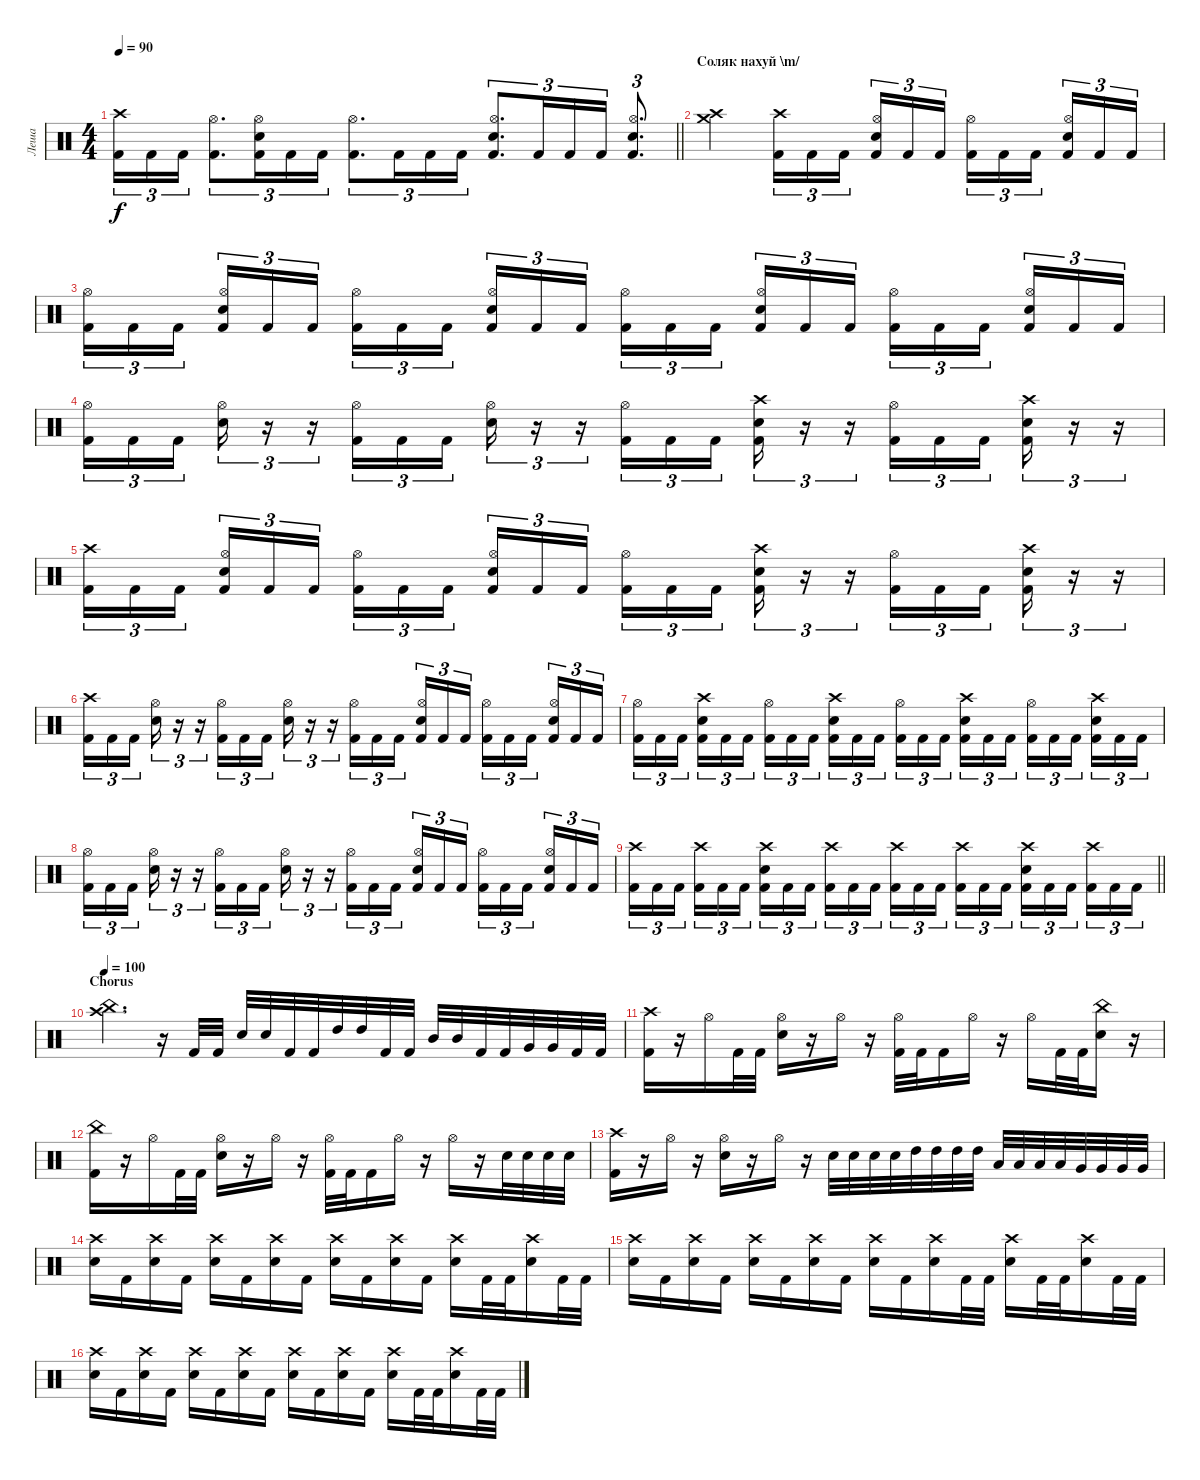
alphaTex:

\track ("Леша" "Леша") {instrument percussion}
\staff {score}
\articulation defaults
\ts (4 4)
\tempo 90
\clef neutral
\barLineRight lightlight
\ks c
("Crash high (hit)" "Kick (hit) 2").16{tu (3 2) dy f} "Kick (hit) 2".16{tu (3 2)} "Kick (hit) 2".16{tu (3 2)} ("Hi-Hat (open)" "Kick (hit) 2").8{d tu (3 2)} ("Hi-Hat (open)" "Electric Snare (hit)" "Kick (hit) 2").16{tu (3 2)} "Kick (hit) 2".16{tu (3 2)} "Kick (hit) 2".16{tu (3 2)} ("Hi-Hat (open)" "Kick (hit) 2").8{d tu (3 2)} "Kick (hit) 2".16{tu (3 2)} "Kick (hit) 2".16{tu (3 2)} "Kick (hit) 2".16{tu (3 2)} ("Hi-Hat (open)" "Electric Snare (hit)" "Kick (hit) 2").8{d tu (3 2)} "Kick (hit) 2".16{tu (3 2)} "Kick (hit) 2".16{tu (3 2)} "Kick (hit) 2".16{tu (3 2)} ("Hi-Hat (open)" "Electric Snare (hit)" "Kick (hit) 2").8{d tu (3 2)} |
\section ("" "Соляк нахуй \\m/")
("Crash high (hit)" "Crash medium (hit)").2 ("Crash high (hit)" "Kick (hit) 2").16{tu (3 2)} "Kick (hit) 2".16{tu (3 2)} "Kick (hit) 2".16{tu (3 2) beam splitsecondary} ("Hi-Hat (open)" "Electric Snare (hit)" "Kick (hit) 2").16{tu (3 2)} "Kick (hit) 2".16{tu (3 2)} "Kick (hit) 2".16{tu (3 2)} ("Hi-Hat (open)" "Kick (hit) 2").16{tu (3 2)} "Kick (hit) 2".16{tu (3 2)} "Kick (hit) 2".16{tu (3 2) beam splitsecondary} ("Hi-Hat (open)" "Electric Snare (hit)" "Kick (hit) 2").16{tu (3 2)} "Kick (hit) 2".16{tu (3 2)} "Kick (hit) 2".16{tu (3 2)} |
("Hi-Hat (open)" "Kick (hit) 2").16{tu (3 2)} "Kick (hit) 2".16{tu (3 2)} "Kick (hit) 2".16{tu (3 2) beam splitsecondary} ("Hi-Hat (open)" "Electric Snare (hit)" "Kick (hit) 2").16{tu (3 2)} "Kick (hit) 2".16{tu (3 2)} "Kick (hit) 2".16{tu (3 2)} ("Hi-Hat (open)" "Kick (hit) 2").16{tu (3 2)} "Kick (hit) 2".16{tu (3 2)} "Kick (hit) 2".16{tu (3 2) beam splitsecondary} ("Hi-Hat (open)" "Electric Snare (hit)" "Kick (hit) 2").16{tu (3 2)} "Kick (hit) 2".16{tu (3 2)} "Kick (hit) 2".16{tu (3 2)} ("Hi-Hat (open)" "Kick (hit) 2").16{tu (3 2)} "Kick (hit) 2".16{tu (3 2)} "Kick (hit) 2".16{tu (3 2) beam splitsecondary} ("Hi-Hat (open)" "Electric Snare (hit)" "Kick (hit) 2").16{tu (3 2)} "Kick (hit) 2".16{tu (3 2)} "Kick (hit) 2".16{tu (3 2)} ("Hi-Hat (open)" "Kick (hit) 2").16{tu (3 2)} "Kick (hit) 2".16{tu (3 2)} "Kick (hit) 2".16{tu (3 2) beam splitsecondary} ("Hi-Hat (open)" "Electric Snare (hit)" "Kick (hit) 2").16{tu (3 2)} "Kick (hit) 2".16{tu (3 2)} "Kick (hit) 2".16{tu (3 2)} |
("Hi-Hat (open)" "Kick (hit) 2").16{tu (3 2)} "Kick (hit) 2".16{tu (3 2)} "Kick (hit) 2".16{tu (3 2) beam splitsecondary} ("Hi-Hat (open)" "Electric Snare (hit)").16{tu (3 2)} r.16{tu (3 2)} r.16{tu (3 2)} ("Hi-Hat (open)" "Kick (hit) 2").16{tu (3 2)} "Kick (hit) 2".16{tu (3 2)} "Kick (hit) 2".16{tu (3 2) beam splitsecondary} ("Hi-Hat (open)" "Electric Snare (hit)").16{tu (3 2)} r.16{tu (3 2)} r.16{tu (3 2)} ("Hi-Hat (open)" "Kick (hit) 2").16{tu (3 2)} "Kick (hit) 2".16{tu (3 2)} "Kick (hit) 2".16{tu (3 2) beam splitsecondary} ("Crash high (hit)" "Electric Snare (hit)" "Kick (hit) 2").16{tu (3 2)} r.16{tu (3 2)} r.16{tu (3 2)} ("Hi-Hat (open)" "Kick (hit) 2").16{tu (3 2)} "Kick (hit) 2".16{tu (3 2)} "Kick (hit) 2".16{tu (3 2) beam splitsecondary} ("Crash high (hit)" "Electric Snare (hit)" "Kick (hit) 2").16{tu (3 2)} r.16{tu (3 2)} r.16{tu (3 2)} |
("Crash high (hit)" "Kick (hit) 2").16{tu (3 2)} "Kick (hit) 2".16{tu (3 2)} "Kick (hit) 2".16{tu (3 2) beam splitsecondary} ("Hi-Hat (open)" "Electric Snare (hit)" "Kick (hit) 2").16{tu (3 2)} "Kick (hit) 2".16{tu (3 2)} "Kick (hit) 2".16{tu (3 2)} ("Hi-Hat (open)" "Kick (hit) 2").16{tu (3 2)} "Kick (hit) 2".16{tu (3 2)} "Kick (hit) 2".16{tu (3 2) beam splitsecondary} ("Hi-Hat (open)" "Electric Snare (hit)" "Kick (hit) 2").16{tu (3 2)} "Kick (hit) 2".16{tu (3 2)} "Kick (hit) 2".16{tu (3 2)} ("Hi-Hat (open)" "Kick (hit) 2").16{tu (3 2)} "Kick (hit) 2".16{tu (3 2)} "Kick (hit) 2".16{tu (3 2) beam splitsecondary} ("Crash high (hit)" "Electric Snare (hit)" "Kick (hit) 2").16{tu (3 2)} r.16{tu (3 2)} r.16{tu (3 2)} ("Hi-Hat (open)" "Kick (hit) 2").16{tu (3 2)} "Kick (hit) 2".16{tu (3 2)} "Kick (hit) 2".16{tu (3 2) beam splitsecondary} ("Crash high (hit)" "Electric Snare (hit)" "Kick (hit) 2").16{tu (3 2)} r.16{tu (3 2)} r.16{tu (3 2)} |
("Crash high (hit)" "Kick (hit) 2").16{tu (3 2)} "Kick (hit) 2".16{tu (3 2)} "Kick (hit) 2".16{tu (3 2) beam splitsecondary} ("Hi-Hat (open)" "Electric Snare (hit)").16{tu (3 2)} r.16{tu (3 2)} r.16{tu (3 2)} ("Hi-Hat (open)" "Kick (hit) 2").16{tu (3 2)} "Kick (hit) 2".16{tu (3 2)} "Kick (hit) 2".16{tu (3 2) beam splitsecondary} ("Hi-Hat (open)" "Electric Snare (hit)").16{tu (3 2)} r.16{tu (3 2)} r.16{tu (3 2)} ("Hi-Hat (open)" "Kick (hit) 2").16{tu (3 2)} "Kick (hit) 2".16{tu (3 2)} "Kick (hit) 2".16{tu (3 2) beam splitsecondary} ("Hi-Hat (open)" "Electric Snare (hit)" "Kick (hit) 2").16{tu (3 2)} "Kick (hit) 2".16{tu (3 2)} "Kick (hit) 2".16{tu (3 2)} ("Hi-Hat (open)" "Kick (hit) 2").16{tu (3 2)} "Kick (hit) 2".16{tu (3 2)} "Kick (hit) 2".16{tu (3 2) beam splitsecondary} ("Hi-Hat (open)" "Electric Snare (hit)" "Kick (hit) 2").16{tu (3 2)} "Kick (hit) 2".16{tu (3 2)} "Kick (hit) 2".16{tu (3 2)} |
("Hi-Hat (open)" "Kick (hit) 2").16{tu (3 2)} "Kick (hit) 2".16{tu (3 2)} "Kick (hit) 2".16{tu (3 2) beam splitsecondary} ("Crash high (hit)" "Electric Snare (hit)" "Kick (hit) 2").16{tu (3 2)} "Kick (hit) 2".16{tu (3 2)} "Kick (hit) 2".16{tu (3 2)} ("Hi-Hat (open)" "Kick (hit) 2").16{tu (3 2)} "Kick (hit) 2".16{tu (3 2)} "Kick (hit) 2".16{tu (3 2) beam splitsecondary} ("Crash high (hit)" "Electric Snare (hit)" "Kick (hit) 2").16{tu (3 2)} "Kick (hit) 2".16{tu (3 2)} "Kick (hit) 2".16{tu (3 2)} ("Hi-Hat (open)" "Kick (hit) 2").16{tu (3 2)} "Kick (hit) 2".16{tu (3 2)} "Kick (hit) 2".16{tu (3 2) beam splitsecondary} ("Crash high (hit)" "Electric Snare (hit)" "Kick (hit) 2").16{tu (3 2)} "Kick (hit) 2".16{tu (3 2)} "Kick (hit) 2".16{tu (3 2)} ("Hi-Hat (open)" "Kick (hit) 2").16{tu (3 2)} "Kick (hit) 2".16{tu (3 2)} "Kick (hit) 2".16{tu (3 2) beam splitsecondary} ("Crash high (hit)" "Electric Snare (hit)" "Kick (hit) 2").16{tu (3 2)} "Kick (hit) 2".16{tu (3 2)} "Kick (hit) 2".16{tu (3 2)} |
("Hi-Hat (open)" "Kick (hit) 2").16{tu (3 2)} "Kick (hit) 2".16{tu (3 2)} "Kick (hit) 2".16{tu (3 2) beam splitsecondary} ("Hi-Hat (open)" "Electric Snare (hit)").16{tu (3 2)} r.16{tu (3 2)} r.16{tu (3 2)} ("Hi-Hat (open)" "Kick (hit) 2").16{tu (3 2)} "Kick (hit) 2".16{tu (3 2)} "Kick (hit) 2".16{tu (3 2) beam splitsecondary} ("Hi-Hat (open)" "Electric Snare (hit)").16{tu (3 2)} r.16{tu (3 2)} r.16{tu (3 2)} ("Hi-Hat (open)" "Kick (hit) 2").16{tu (3 2)} "Kick (hit) 2".16{tu (3 2)} "Kick (hit) 2".16{tu (3 2) beam splitsecondary} ("Hi-Hat (open)" "Electric Snare (hit)" "Kick (hit) 2").16{tu (3 2)} "Kick (hit) 2".16{tu (3 2)} "Kick (hit) 2".16{tu (3 2)} ("Hi-Hat (open)" "Kick (hit) 2").16{tu (3 2)} "Kick (hit) 2".16{tu (3 2)} "Kick (hit) 2".16{tu (3 2) beam splitsecondary} ("Hi-Hat (open)" "Electric Snare (hit)" "Kick (hit) 2").16{tu (3 2)} "Kick (hit) 2".16{tu (3 2)} "Kick (hit) 2".16{tu (3 2)} |
\barLineRight lightlight
("Crash high (hit)" "Kick (hit) 2").16{tu (3 2)} "Kick (hit) 2".16{tu (3 2)} "Kick (hit) 2".16{tu (3 2) beam splitsecondary} ("Crash high (hit)" "Kick (hit) 2").16{tu (3 2)} "Kick (hit) 2".16{tu (3 2)} "Kick (hit) 2".16{tu (3 2)} ("Crash high (hit)" "Electric Snare (hit)" "Kick (hit) 2").16{tu (3 2)} "Kick (hit) 2".16{tu (3 2)} "Kick (hit) 2".16{tu (3 2) beam splitsecondary} ("Crash high (hit)" "Kick (hit) 2").16{tu (3 2)} "Kick (hit) 2".16{tu (3 2)} "Kick (hit) 2".16{tu (3 2)} ("Crash high (hit)" "Kick (hit) 2").16{tu (3 2)} "Kick (hit) 2".16{tu (3 2)} "Kick (hit) 2".16{tu (3 2) beam splitsecondary} ("Crash high (hit)" "Kick (hit) 2").16{tu (3 2)} "Kick (hit) 2".16{tu (3 2)} "Kick (hit) 2".16{tu (3 2)} ("Crash high (hit)" "Electric Snare (hit)" "Kick (hit) 2").16{tu (3 2)} "Kick (hit) 2".16{tu (3 2)} "Kick (hit) 2".16{tu (3 2) beam splitsecondary} ("Crash high (hit)" "Kick (hit) 2").16{tu (3 2)} "Kick (hit) 2".16{tu (3 2)} "Kick (hit) 2".16{tu (3 2)} |
\section ("" "Chorus")
\tempo 100
("China (hit)" "Crash high (hit)").4{d} r.16 "Kick (hit) 2".32 "Kick (hit) 2".32 "Electric Snare (hit)".32 "Electric Snare (hit)".32 "Kick (hit) 2".32 "Kick (hit) 2".32 "High Tom (hit)".32 "High Tom (hit)".32 "Kick (hit) 2".32 "Kick (hit) 2".32 "Mid Tom (hit)".32 "Mid Tom (hit)".32 "Kick (hit) 2".32 "Kick (hit) 2".32 "Very Low Tom (hit)".32 "Very Low Tom (hit)".32 "Kick (hit) 2".32 "Kick (hit) 2".32 |
("Crash high (hit)" "Kick (hit) 2").16 r.16 "Hi-Hat (open)".16 "Kick (hit) 2".32 "Kick (hit) 2".32 ("Hi-Hat (open)" "Electric Snare (hit)").16 r.16 "Hi-Hat (open)".16 r.16 ("Hi-Hat (open)" "Kick (hit) 2").32 "Kick (hit) 2".32 "Kick (hit) 2".16 "Hi-Hat (open)".16 r.16 "Hi-Hat (open)".16 "Kick (hit) 2".32 "Kick (hit) 2".32 ("China (hit)" "Electric Snare (hit)").16 r.16 |
("China (hit)" "Kick (hit) 2").16 r.16 "Hi-Hat (open)".16 "Kick (hit) 2".32 "Kick (hit) 2".32 ("Hi-Hat (open)" "Electric Snare (hit)").16 r.16 "Hi-Hat (open)".16 r.16 ("Hi-Hat (open)" "Kick (hit) 2").32 "Kick (hit) 2".32 "Kick (hit) 2".16 "Hi-Hat (open)".16 r.16 "Hi-Hat (open)".16 r.16 "Electric Snare (hit)".32 "Electric Snare (hit)".32 "Electric Snare (hit)".32 "Electric Snare (hit)".32 |
("Crash high (hit)" "Kick (hit) 2").16 r.16 "Hi-Hat (open)".16 r.16 ("Hi-Hat (open)" "Electric Snare (hit)").16 r.16 "Hi-Hat (open)".16 r.16 "Electric Snare (hit)".32 "Electric Snare (hit)".32 "Electric Snare (hit)".32 "Electric Snare (hit)".32 "High Tom (hit)".32 "High Tom (hit)".32 "High Tom (hit)".32 "High Tom (hit)".32 "Low Tom (hit)".32 "Low Tom (hit)".32 "Low Tom (hit)".32 "Low Tom (hit)".32 "Very Low Tom (hit)".32 "Very Low Tom (hit)".32 "Very Low Tom (hit)".32 "Very Low Tom (hit)".32 |
("Crash high (hit)" "Electric Snare (hit)").16 "Kick (hit) 2".16 ("Crash high (hit)" "Electric Snare (hit)").16 "Kick (hit) 2".16 ("Crash high (hit)" "Electric Snare (hit)").16 "Kick (hit) 2".16 ("Crash high (hit)" "Electric Snare (hit)").16 "Kick (hit) 2".16 ("Crash high (hit)" "Electric Snare (hit)").16 "Kick (hit) 2".16 ("Crash high (hit)" "Electric Snare (hit)").16 "Kick (hit) 2".16 ("Crash high (hit)" "Electric Snare (hit)").16 "Kick (hit) 2".32 "Kick (hit) 2".32 ("Crash high (hit)" "Electric Snare (hit)").16 "Kick (hit) 2".32 "Kick (hit) 2".32 |
("Crash high (hit)" "Electric Snare (hit)").16 "Kick (hit) 2".16 ("Crash high (hit)" "Electric Snare (hit)").16 "Kick (hit) 2".16 ("Crash high (hit)" "Electric Snare (hit)").16 "Kick (hit) 2".16 ("Crash high (hit)" "Electric Snare (hit)").16 "Kick (hit) 2".16 ("Crash high (hit)" "Electric Snare (hit)").16 "Kick (hit) 2".16 ("Crash high (hit)" "Electric Snare (hit)").16 "Kick (hit) 2".32 "Kick (hit) 2".32 ("Crash high (hit)" "Electric Snare (hit)").16 "Kick (hit) 2".32 "Kick (hit) 2".32 ("Crash high (hit)" "Electric Snare (hit)").16 "Kick (hit) 2".32 "Kick (hit) 2".32 |
("Crash high (hit)" "Electric Snare (hit)").16 "Kick (hit) 2".16 ("Crash high (hit)" "Electric Snare (hit)").16 "Kick (hit) 2".16 ("Crash high (hit)" "Electric Snare (hit)").16 "Kick (hit) 2".16 ("Crash high (hit)" "Electric Snare (hit)").16 "Kick (hit) 2".16 ("Crash high (hit)" "Electric Snare (hit)").16 "Kick (hit) 2".16 ("Crash high (hit)" "Electric Snare (hit)").16 "Kick (hit) 2".16 ("Crash high (hit)" "Electric Snare (hit)").16 "Kick (hit) 2".32 "Kick (hit) 2".32 ("Crash high (hit)" "Electric Snare (hit)").16 "Kick (hit) 2".32 "Kick (hit) 2".32
